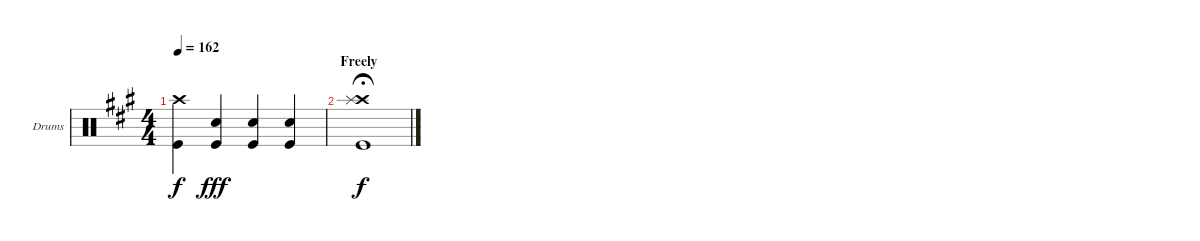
\defaultSystemsLayout 4
\bracketExtendMode groupsimilarinstruments
\firstSystemTrackNameOrientation horizontal
\otherSystemsTrackNameOrientation horizontal
\track ("Drums" "Drums") {instrument percussion}
\staff {score}
\articulation defaults
\ts (4 4)
\tempo 162
\clef neutral
\scale
1.05801
\ks a
("Crash high (hit)" "Kick (hit)").4{dy f} ("Snare (hit) 2" "Kick (hit)").4{dy fff} ("Snare (hit) 2" "Kick (hit)").4 ("Snare (hit) 2" "Kick (hit)").4 |
\section ("" "Freely")
\scale
0.941992 ("Crash high (hit)" "Splash (hit)" "Kick (hit)").1{dy f fermata (medium 1)}
